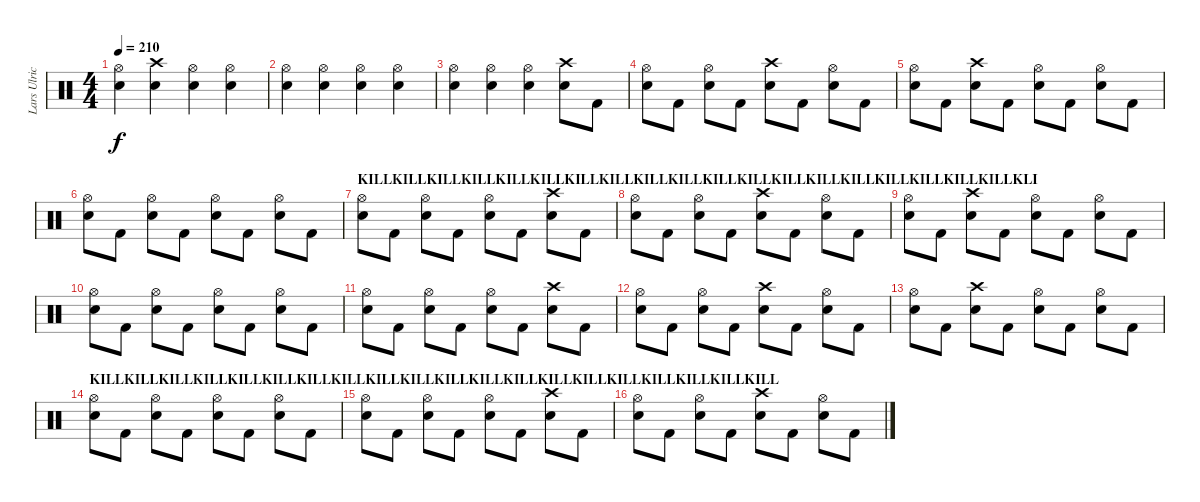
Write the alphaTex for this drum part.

\track ("Lars Ulrich" "Lars Ulric") {instrument percussion}
\staff {score}
\articulation defaults
\ts (4 4)
\tempo 210
\clef neutral
\ks c
("Hi-Hat (open)" "Snare (hit) 2").4{dy f} ("Crash high (hit)" "Snare (hit) 2").4 ("Hi-Hat (open)" "Snare (hit) 2").4 ("Hi-Hat (open)" "Snare (hit) 2").4 |
("Hi-Hat (open)" "Snare (hit) 2").4 ("Hi-Hat (open)" "Snare (hit) 2").4 ("Hi-Hat (open)" "Snare (hit) 2").4 ("Hi-Hat (open)" "Snare (hit) 2").4 |
("Hi-Hat (open)" "Snare (hit) 2").4 ("Hi-Hat (open)" "Snare (hit) 2").4 ("Hi-Hat (open)" "Snare (hit) 2").4 ("Crash high (hit)" "Snare (hit) 2").8 "Kick (hit) 2".8 |
("Hi-Hat (open)" "Snare (hit) 2").8 "Kick (hit) 2".8 ("Hi-Hat (open)" "Snare (hit) 2").8 "Kick (hit) 2".8 ("Crash high (hit)" "Snare (hit) 2").8 "Kick (hit) 2".8 ("Hi-Hat (open)" "Snare (hit) 2").8 "Kick (hit) 2".8 |
("Hi-Hat (open)" "Snare (hit) 2").8 "Kick (hit) 2".8 ("Crash high (hit)" "Snare (hit) 2").8 "Kick (hit) 2".8 ("Hi-Hat (open)" "Snare (hit) 2").8 "Kick (hit) 2".8 ("Hi-Hat (open)" "Snare (hit) 2").8 "Kick (hit) 2".8 |
("Hi-Hat (open)" "Snare (hit) 2").8 "Kick (hit) 2".8 ("Hi-Hat (open)" "Snare (hit) 2").8 "Kick (hit) 2".8 ("Hi-Hat (open)" "Snare (hit) 2").8 "Kick (hit) 2".8 ("Hi-Hat (open)" "Snare (hit) 2").8 "Kick (hit) 2".8 |
\section ("" "KILLKILLKILLKILLKILLKILLKILLKILLKILLKILLKILLKILLKILLKILLKILLKILLKILLKILLKILLKLI")
("Hi-Hat (open)" "Snare (hit) 2").8 "Kick (hit) 2".8 ("Hi-Hat (open)" "Snare (hit) 2").8 "Kick (hit) 2".8 ("Hi-Hat (open)" "Snare (hit) 2").8 "Kick (hit) 2".8 ("Crash high (hit)" "Snare (hit) 2").8 "Kick (hit) 2".8 |
("Snare (hit) 2" "Hi-Hat (open)").8 "Kick (hit) 2".8 ("Snare (hit) 2" "Hi-Hat (open)").8 "Kick (hit) 2".8 ("Snare (hit) 2" "Crash high (hit)").8 "Kick (hit) 2".8 ("Snare (hit) 2" "Hi-Hat (open)").8 "Kick (hit) 2".8 |
("Snare (hit) 2" "Hi-Hat (open)").8 "Kick (hit) 2".8 ("Snare (hit) 2" "Crash high (hit)").8 "Kick (hit) 2".8 ("Snare (hit) 2" "Hi-Hat (open)").8 "Kick (hit) 2".8 ("Snare (hit) 2" "Hi-Hat (open)").8 "Kick (hit) 2".8 |
("Snare (hit) 2" "Hi-Hat (open)").8 "Kick (hit) 2".8 ("Snare (hit) 2" "Hi-Hat (open)").8 "Kick (hit) 2".8 ("Snare (hit) 2" "Hi-Hat (open)").8 "Kick (hit) 2".8 ("Snare (hit) 2" "Hi-Hat (open)").8 "Kick (hit) 2".8 |
("Snare (hit) 2" "Hi-Hat (open)").8 "Kick (hit) 2".8 ("Snare (hit) 2" "Hi-Hat (open)").8 "Kick (hit) 2".8 ("Snare (hit) 2" "Hi-Hat (open)").8 "Kick (hit) 2".8 ("Snare (hit) 2" "Crash high (hit)").8 "Kick (hit) 2".8 |
("Snare (hit) 2" "Hi-Hat (open)").8 "Kick (hit) 2".8 ("Snare (hit) 2" "Hi-Hat (open)").8 "Kick (hit) 2".8 ("Snare (hit) 2" "Crash high (hit)").8 "Kick (hit) 2".8 ("Snare (hit) 2" "Hi-Hat (open)").8 "Kick (hit) 2".8 |
("Snare (hit) 2" "Hi-Hat (open)").8 "Kick (hit) 2".8 ("Snare (hit) 2" "Crash high (hit)").8 "Kick (hit) 2".8 ("Snare (hit) 2" "Hi-Hat (open)").8 "Kick (hit) 2".8 ("Snare (hit) 2" "Hi-Hat (open)").8 "Kick (hit) 2".8 |
\section ("" "KILLKILLKILLKILLKILLKILLKILLKILLKILLKILLKILLKILLKILLKILLKILLKILLKILLKILLKILLKILL")
("Snare (hit) 2" "Hi-Hat (open)").8 "Kick (hit) 2".8 ("Snare (hit) 2" "Hi-Hat (open)").8 "Kick (hit) 2".8 ("Snare (hit) 2" "Hi-Hat (open)").8 "Kick (hit) 2".8 ("Snare (hit) 2" "Hi-Hat (open)").8 "Kick (hit) 2".8 |
("Snare (hit) 2" "Hi-Hat (open)").8 "Kick (hit) 2".8 ("Snare (hit) 2" "Hi-Hat (open)").8 "Kick (hit) 2".8 ("Snare (hit) 2" "Hi-Hat (open)").8 "Kick (hit) 2".8 ("Snare (hit) 2" "Crash high (hit)").8 "Kick (hit) 2".8 |
("Snare (hit) 2" "Hi-Hat (open)").8 "Kick (hit) 2".8 ("Snare (hit) 2" "Hi-Hat (open)").8 "Kick (hit) 2".8 ("Snare (hit) 2" "Crash high (hit)").8 "Kick (hit) 2".8 ("Snare (hit) 2" "Hi-Hat (open)").8 "Kick (hit) 2".8
